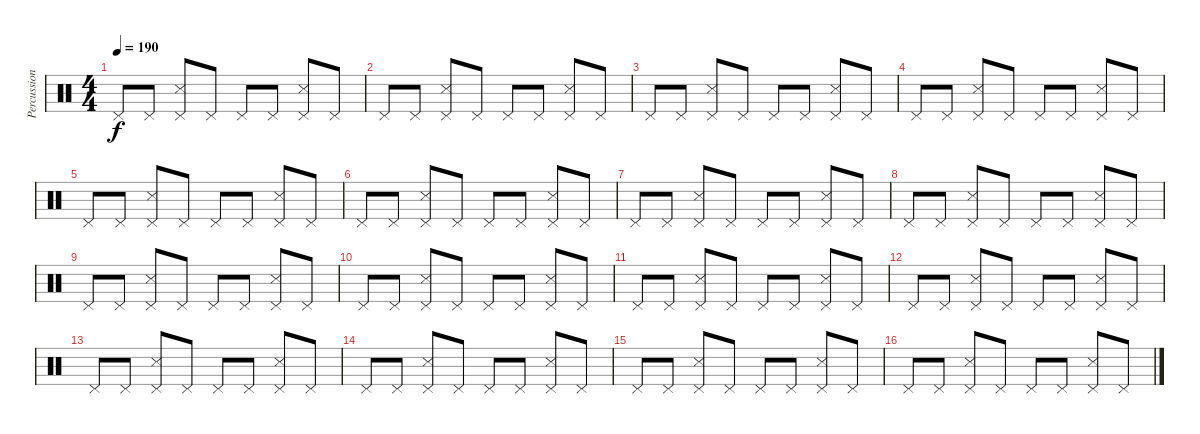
\track ("Percussions" "Percussion") {instrument percussion}
\staff {score}
\articulation defaults
\ts (4 4)
\tempo 190
\clef neutral
\ks c "Pedal Hi-Hat (hit)".8{dy f} "Pedal Hi-Hat (hit)".8
("Pedal Hi-Hat (hit)" "Snare (side stick) 3").8 "Pedal Hi-Hat (hit)".8 "Pedal Hi-Hat (hit)".8 "Pedal Hi-Hat (hit)".8 ("Pedal Hi-Hat (hit)" "Snare (side stick) 3").8 "Pedal Hi-Hat (hit)".8 |
"Pedal Hi-Hat (hit)".8 "Pedal Hi-Hat (hit)".8 ("Pedal Hi-Hat (hit)" "Snare (side stick) 3").8 "Pedal Hi-Hat (hit)".8 "Pedal Hi-Hat (hit)".8 "Pedal Hi-Hat (hit)".8 ("Pedal Hi-Hat (hit)" "Snare (side stick) 3").8 "Pedal Hi-Hat (hit)".8 |
"Pedal Hi-Hat (hit)".8 "Pedal Hi-Hat (hit)".8 ("Pedal Hi-Hat (hit)" "Snare (side stick) 3").8 "Pedal Hi-Hat (hit)".8 "Pedal Hi-Hat (hit)".8 "Pedal Hi-Hat (hit)".8 ("Pedal Hi-Hat (hit)" "Snare (side stick) 3").8 "Pedal Hi-Hat (hit)".8 |
"Pedal Hi-Hat (hit)".8 "Pedal Hi-Hat (hit)".8 ("Pedal Hi-Hat (hit)" "Snare (side stick) 3").8 "Pedal Hi-Hat (hit)".8 "Pedal Hi-Hat (hit)".8 "Pedal Hi-Hat (hit)".8 ("Pedal Hi-Hat (hit)" "Snare (side stick) 3").8 "Pedal Hi-Hat (hit)".8 |
"Pedal Hi-Hat (hit)".8 "Pedal Hi-Hat (hit)".8 ("Pedal Hi-Hat (hit)" "Snare (side stick) 3").8 "Pedal Hi-Hat (hit)".8 "Pedal Hi-Hat (hit)".8 "Pedal Hi-Hat (hit)".8 ("Pedal Hi-Hat (hit)" "Snare (side stick) 3").8 "Pedal Hi-Hat (hit)".8 |
"Pedal Hi-Hat (hit)".8 "Pedal Hi-Hat (hit)".8 ("Pedal Hi-Hat (hit)" "Snare (side stick) 3").8 "Pedal Hi-Hat (hit)".8 "Pedal Hi-Hat (hit)".8 "Pedal Hi-Hat (hit)".8 ("Pedal Hi-Hat (hit)" "Snare (side stick) 3").8 "Pedal Hi-Hat (hit)".8 |
"Pedal Hi-Hat (hit)".8 "Pedal Hi-Hat (hit)".8 ("Pedal Hi-Hat (hit)" "Snare (side stick) 3").8 "Pedal Hi-Hat (hit)".8 "Pedal Hi-Hat (hit)".8 "Pedal Hi-Hat (hit)".8 ("Pedal Hi-Hat (hit)" "Snare (side stick) 3").8 "Pedal Hi-Hat (hit)".8 |
"Pedal Hi-Hat (hit)".8 "Pedal Hi-Hat (hit)".8 ("Pedal Hi-Hat (hit)" "Snare (side stick) 3").8 "Pedal Hi-Hat (hit)".8 "Pedal Hi-Hat (hit)".8 "Pedal Hi-Hat (hit)".8 ("Pedal Hi-Hat (hit)" "Snare (side stick) 3").8 "Pedal Hi-Hat (hit)".8 |
"Pedal Hi-Hat (hit)".8 "Pedal Hi-Hat (hit)".8 ("Pedal Hi-Hat (hit)" "Snare (side stick) 3").8 "Pedal Hi-Hat (hit)".8 "Pedal Hi-Hat (hit)".8 "Pedal Hi-Hat (hit)".8 ("Pedal Hi-Hat (hit)" "Snare (side stick) 3").8 "Pedal Hi-Hat (hit)".8 |
"Pedal Hi-Hat (hit)".8 "Pedal Hi-Hat (hit)".8 ("Pedal Hi-Hat (hit)" "Snare (side stick) 3").8 "Pedal Hi-Hat (hit)".8 "Pedal Hi-Hat (hit)".8 "Pedal Hi-Hat (hit)".8 ("Pedal Hi-Hat (hit)" "Snare (side stick) 3").8 "Pedal Hi-Hat (hit)".8 |
"Pedal Hi-Hat (hit)".8 "Pedal Hi-Hat (hit)".8 ("Pedal Hi-Hat (hit)" "Snare (side stick) 3").8 "Pedal Hi-Hat (hit)".8 "Pedal Hi-Hat (hit)".8 "Pedal Hi-Hat (hit)".8 ("Pedal Hi-Hat (hit)" "Snare (side stick) 3").8 "Pedal Hi-Hat (hit)".8 |
"Pedal Hi-Hat (hit)".8 "Pedal Hi-Hat (hit)".8 ("Pedal Hi-Hat (hit)" "Snare (side stick) 3").8 "Pedal Hi-Hat (hit)".8 "Pedal Hi-Hat (hit)".8 "Pedal Hi-Hat (hit)".8 ("Pedal Hi-Hat (hit)" "Snare (side stick) 3").8 "Pedal Hi-Hat (hit)".8 |
"Pedal Hi-Hat (hit)".8 "Pedal Hi-Hat (hit)".8 ("Pedal Hi-Hat (hit)" "Snare (side stick) 3").8 "Pedal Hi-Hat (hit)".8 "Pedal Hi-Hat (hit)".8 "Pedal Hi-Hat (hit)".8 ("Pedal Hi-Hat (hit)" "Snare (side stick) 3").8 "Pedal Hi-Hat (hit)".8 |
"Pedal Hi-Hat (hit)".8 "Pedal Hi-Hat (hit)".8 ("Pedal Hi-Hat (hit)" "Snare (side stick) 3").8 "Pedal Hi-Hat (hit)".8 "Pedal Hi-Hat (hit)".8 "Pedal Hi-Hat (hit)".8 ("Pedal Hi-Hat (hit)" "Snare (side stick) 3").8 "Pedal Hi-Hat (hit)".8 |
"Pedal Hi-Hat (hit)".8 "Pedal Hi-Hat (hit)".8 ("Pedal Hi-Hat (hit)" "Snare (side stick) 3").8 "Pedal Hi-Hat (hit)".8 "Pedal Hi-Hat (hit)".8 "Pedal Hi-Hat (hit)".8 ("Pedal Hi-Hat (hit)" "Snare (side stick) 3").8 "Pedal Hi-Hat (hit)".8 |
"Pedal Hi-Hat (hit)".8 "Pedal Hi-Hat (hit)".8 ("Pedal Hi-Hat (hit)" "Snare (side stick) 3").8 "Pedal Hi-Hat (hit)".8 "Pedal Hi-Hat (hit)".8 "Pedal Hi-Hat (hit)".8 ("Pedal Hi-Hat (hit)" "Snare (side stick) 3").8 "Pedal Hi-Hat (hit)".8
